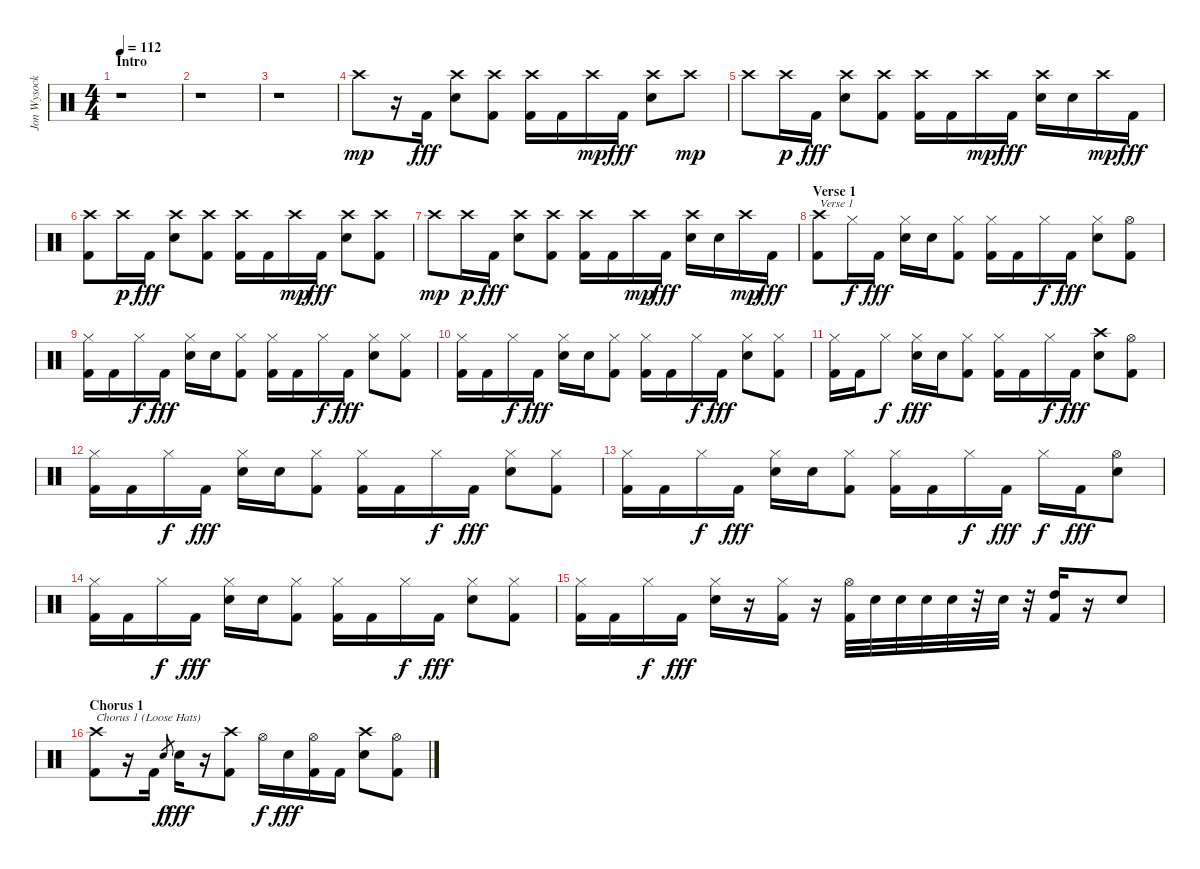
\track ("Jon Wysocki" "Jon Wysock") {instrument percussion}
\staff {score}
\articulation defaults
\ts (4 4)
\section ("" "Intro")
\tempo 112
\clef neutral
\ks c
r.1{dy mp} |
r.1 |
r.1 |
"Crash high (hit)".8 r.16 "Kick (hit) 2".16{dy fff} ("Crash high (hit)" "Electric Snare (hit)").8 ("Crash high (hit)" "Kick (hit) 2").8 ("Crash high (hit)" "Kick (hit) 2").16 "Kick (hit) 2".16 "Crash high (hit)".16{dy mp} "Kick (hit) 2".16{dy fff} ("Crash high (hit)" "Electric Snare (hit)").8 "Crash high (hit)".8{dy mp} |
"Crash high (hit)".8 "Crash high (hit)".16{dy p} "Kick (hit) 2".16{dy fff} ("Crash high (hit)" "Electric Snare (hit)").8 ("Crash high (hit)" "Kick (hit) 2").8 ("Crash high (hit)" "Kick (hit) 2").16 "Kick (hit) 2".16 "Crash high (hit)".16{dy mp} "Kick (hit) 2".16{dy fff} ("Crash high (hit)" "Electric Snare (hit)").16 "Electric Snare (hit)".16 "Crash high (hit)".16{dy mp} "Kick (hit) 2".16{dy fff} |
("Crash high (hit)" "Kick (hit) 2").8 "Crash high (hit)".16{dy p} "Kick (hit) 2".16{dy fff} ("Crash high (hit)" "Electric Snare (hit)").8 ("Crash high (hit)" "Kick (hit) 2").8 ("Crash high (hit)" "Kick (hit) 2").16 "Kick (hit) 2".16 "Crash high (hit)".16{dy mp} "Kick (hit) 2".16{dy fff} ("Crash high (hit)" "Electric Snare (hit)").8 ("Crash high (hit)" "Kick (hit) 2").8 |
"Crash high (hit)".8{dy mp} "Crash high (hit)".16{dy p} "Kick (hit) 2".16{dy fff} ("Crash high (hit)" "Electric Snare (hit)").8 ("Crash high (hit)" "Kick (hit) 2").8 ("Crash high (hit)" "Kick (hit) 2").16 "Kick (hit) 2".16 "Crash high (hit)".16{dy mp} "Kick (hit) 2".16{dy fff} ("Crash high (hit)" "Electric Snare (hit)").16 "Electric Snare (hit)".16 "Crash high (hit)".16{dy mp} "Kick (hit) 2".16{dy fff} |
\section ("" "Verse 1")
("Crash high (hit)" "Kick (hit) 2").8{txt "Verse 1"} "Hi-Hat (closed)".16{dy f} "Kick (hit) 2".16{dy fff} ("Hi-Hat (closed)" "Electric Snare (hit)").16 "Electric Snare (hit)".16 ("Hi-Hat (closed)" "Kick (hit) 2").8 ("Hi-Hat (closed)" "Kick (hit) 2").16 "Kick (hit) 2".16 "Hi-Hat (closed)".16{dy f} "Kick (hit) 2".16{dy fff} ("Hi-Hat (closed)" "Electric Snare (hit)").8 ("Hi-Hat (open)" "Kick (hit) 2").8 |
("Hi-Hat (closed)" "Kick (hit) 2").16 "Kick (hit) 2".16 "Hi-Hat (closed)".16{dy f} "Kick (hit) 2".16{dy fff} ("Hi-Hat (closed)" "Electric Snare (hit)").16 "Electric Snare (hit)".16 ("Hi-Hat (closed)" "Kick (hit) 2").8 ("Hi-Hat (closed)" "Kick (hit) 2").16 "Kick (hit) 2".16 "Hi-Hat (closed)".16{dy f} "Kick (hit) 2".16{dy fff} ("Hi-Hat (closed)" "Electric Snare (hit)").8 ("Hi-Hat (closed)" "Kick (hit) 2").8 |
("Hi-Hat (closed)" "Kick (hit) 2").16 "Kick (hit) 2".16 "Hi-Hat (closed)".16{dy f} "Kick (hit) 2".16{dy fff} ("Hi-Hat (closed)" "Electric Snare (hit)").16 "Electric Snare (hit)".16 ("Hi-Hat (closed)" "Kick (hit) 2").8 ("Hi-Hat (closed)" "Kick (hit) 2").16 "Kick (hit) 2".16 "Hi-Hat (closed)".16{dy f} "Kick (hit) 2".16{dy fff} ("Hi-Hat (closed)" "Electric Snare (hit)").8 ("Hi-Hat (closed)" "Kick (hit) 2").8 |
("Hi-Hat (closed)" "Kick (hit) 2").16 "Kick (hit) 2".16 "Hi-Hat (closed)".8{dy f} ("Hi-Hat (closed)" "Electric Snare (hit)").16{dy fff} "Electric Snare (hit)".16 ("Hi-Hat (closed)" "Kick (hit) 2").8 ("Hi-Hat (closed)" "Kick (hit) 2").16 "Kick (hit) 2".16 "Hi-Hat (closed)".16{dy f} "Kick (hit) 2".16{dy fff} ("Crash high (hit)" "Electric Snare (hit)").8 ("Hi-Hat (open)" "Kick (hit) 2").8 |
("Hi-Hat (closed)" "Kick (hit) 2").16 "Kick (hit) 2".16 "Hi-Hat (closed)".16{dy f} "Kick (hit) 2".16{dy fff} ("Hi-Hat (closed)" "Electric Snare (hit)").16 "Electric Snare (hit)".16 ("Hi-Hat (closed)" "Kick (hit) 2").8 ("Hi-Hat (closed)" "Kick (hit) 2").16 "Kick (hit) 2".16 "Hi-Hat (closed)".16{dy f} "Kick (hit) 2".16{dy fff} ("Hi-Hat (closed)" "Electric Snare (hit)").8 ("Hi-Hat (closed)" "Kick (hit) 2").8 |
("Hi-Hat (closed)" "Kick (hit) 2").16 "Kick (hit) 2".16 "Hi-Hat (closed)".16{dy f} "Kick (hit) 2".16{dy fff} ("Hi-Hat (closed)" "Electric Snare (hit)").16 "Electric Snare (hit)".16 ("Hi-Hat (closed)" "Kick (hit) 2").8 ("Hi-Hat (closed)" "Kick (hit) 2").16 "Kick (hit) 2".16 "Hi-Hat (closed)".16{dy f} "Kick (hit) 2".16{dy fff} "Hi-Hat (closed)".16{dy f} "Kick (hit) 2".16{dy fff} ("Hi-Hat (open)" "Electric Snare (hit)").8 |
("Hi-Hat (closed)" "Kick (hit) 2").16 "Kick (hit) 2".16 "Hi-Hat (closed)".16{dy f} "Kick (hit) 2".16{dy fff} ("Hi-Hat (closed)" "Electric Snare (hit)").16 "Electric Snare (hit)".16 ("Hi-Hat (closed)" "Kick (hit) 2").8 ("Hi-Hat (closed)" "Kick (hit) 2").16 "Kick (hit) 2".16 "Hi-Hat (closed)".16{dy f} "Kick (hit) 2".16{dy fff} ("Hi-Hat (closed)" "Electric Snare (hit)").8 ("Hi-Hat (closed)" "Kick (hit) 2").8 |
("Hi-Hat (closed)" "Kick (hit) 2").16 "Kick (hit) 2".16 "Hi-Hat (closed)".16{dy f} "Kick (hit) 2".16{dy fff} ("Hi-Hat (closed)" "Electric Snare (hit)").16 r.16 ("Hi-Hat (closed)" "Kick (hit) 2").16 r.16 ("Hi-Hat (open)" "Kick (hit) 2").32 "Electric Snare (hit)".32 "Electric Snare (hit)".32 "Electric Snare (hit)".32 "Electric Snare (hit)".32 r.32 "Electric Snare (hit)".32 r.32 ("High Tom (hit)" "Kick (hit) 2").16 r.16 "Electric Snare (hit)".8 |
\section ("" "Chorus 1 ")
("Crash high (hit)" "Kick (hit) 2").8{txt "Chorus 1 (Loose Hats)"} r.16 "Kick (hit) 2".16 "Electric Snare (hit)".8{gr dy f} "Electric Snare (hit)".16{dy fff} r.16 ("Crash high (hit)" "Kick (hit) 2").8 "Hi-Hat (open)".16{dy f} "Electric Snare (hit)".16{dy fff} ("Hi-Hat (open)" "Kick (hit) 2").16 "Kick (hit) 2".16 ("Crash high (hit)" "Electric Snare (hit)").8 ("Hi-Hat (open)" "Kick (hit) 2").8
